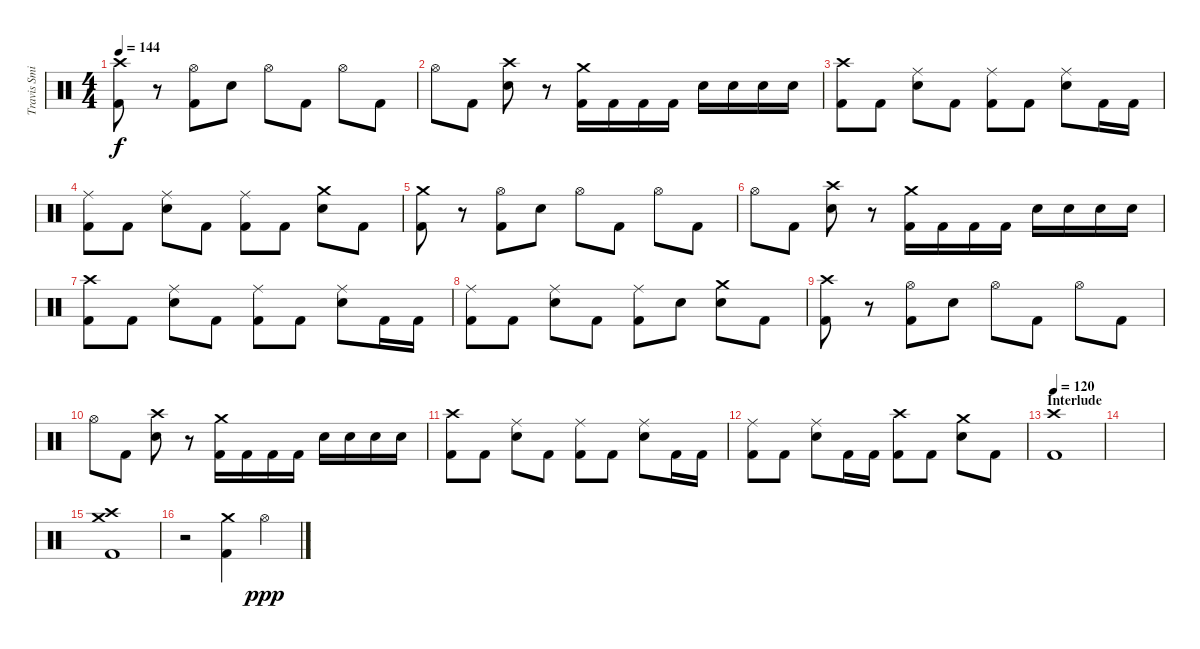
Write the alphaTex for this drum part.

\track ("Travis Smith" "Travis Smi") {instrument percussion}
\staff {score}
\articulation defaults
\ts (4 4)
\tempo 144
\clef neutral
\ks c
("Crash high (hit)" "Kick (hit) 2").8{dy f} r.8 ("Hi-Hat (open)" "Kick (hit) 2").8 "Electric Snare (hit)".8 "Hi-Hat (open)".8 "Kick (hit) 2".8 "Hi-Hat (open)".8 "Kick (hit) 2".8 |
"Hi-Hat (open)".8 "Kick (hit) 2".8 ("Crash high (hit)" "Electric Snare (hit)").8 r.8 ("Crash medium (hit)" "Kick (hit) 2").16 "Kick (hit) 2".16 "Kick (hit) 2".16 "Kick (hit) 2".16 "Electric Snare (hit)".16 "Electric Snare (hit)".16 "Electric Snare (hit)".16 "Electric Snare (hit)".16 |
("Crash high (hit)" "Kick (hit) 2").8 "Kick (hit) 2".8 ("Ride (middle)" "Electric Snare (hit)").8 "Kick (hit) 2".8 ("Ride (middle)" "Kick (hit) 2").8 "Kick (hit) 2".8 ("Ride (middle)" "Electric Snare (hit)").8 "Kick (hit) 2".16 "Kick (hit) 2".16 |
("Ride (middle)" "Kick (hit) 2").8 "Kick (hit) 2".8 ("Ride (middle)" "Electric Snare (hit)").8 "Kick (hit) 2".8 ("Ride (middle)" "Kick (hit) 2").8 "Kick (hit) 2".8 ("Crash medium (hit)" "Electric Snare (hit)").8 "Kick (hit) 2".8 |
("Crash medium (hit)" "Kick (hit) 2").8 r.8 ("Hi-Hat (open)" "Kick (hit) 2").8 "Electric Snare (hit)".8 "Hi-Hat (open)".8 "Kick (hit) 2".8 "Hi-Hat (open)".8 "Kick (hit) 2".8 |
"Hi-Hat (open)".8 "Kick (hit) 2".8 ("Crash high (hit)" "Electric Snare (hit)").8 r.8 ("Crash medium (hit)" "Kick (hit) 2").16 "Kick (hit) 2".16 "Kick (hit) 2".16 "Kick (hit) 2".16 "Electric Snare (hit)".16 "Electric Snare (hit)".16 "Electric Snare (hit)".16 "Electric Snare (hit)".16 |
("Crash high (hit)" "Kick (hit) 2").8 "Kick (hit) 2".8 ("Ride (middle)" "Electric Snare (hit)").8 "Kick (hit) 2".8 ("Ride (middle)" "Kick (hit) 2").8 "Kick (hit) 2".8 ("Ride (middle)" "Electric Snare (hit)").8 "Kick (hit) 2".16 "Kick (hit) 2".16 |
("Ride (middle)" "Kick (hit) 2").8 "Kick (hit) 2".8 ("Ride (middle)" "Electric Snare (hit)").8 "Kick (hit) 2".8 ("Ride (middle)" "Kick (hit) 2").8 "Electric Snare (hit)".8 ("Crash medium (hit)" "Electric Snare (hit)").8 "Kick (hit) 2".8 |
("Crash high (hit)" "Kick (hit) 2").8 r.8 ("Hi-Hat (open)" "Kick (hit) 2").8 "Electric Snare (hit)".8 "Hi-Hat (open)".8 "Kick (hit) 2".8 "Hi-Hat (open)".8 "Kick (hit) 2".8 |
"Hi-Hat (open)".8 "Kick (hit) 2".8 ("Crash high (hit)" "Electric Snare (hit)").8 r.8 ("Crash medium (hit)" "Kick (hit) 2").16 "Kick (hit) 2".16 "Kick (hit) 2".16 "Kick (hit) 2".16 "Electric Snare (hit)".16 "Electric Snare (hit)".16 "Electric Snare (hit)".16 "Electric Snare (hit)".16 |
("Crash high (hit)" "Kick (hit) 2").8 "Kick (hit) 2".8 ("Ride (middle)" "Electric Snare (hit)").8 "Kick (hit) 2".8 ("Ride (middle)" "Kick (hit) 2").8 "Kick (hit) 2".8 ("Ride (middle)" "Electric Snare (hit)").8 "Kick (hit) 2".16 "Kick (hit) 2".16 |
("Ride (middle)" "Kick (hit) 2").8 "Kick (hit) 2".8 ("Ride (middle)" "Electric Snare (hit)").8 "Kick (hit) 2".16 "Kick (hit) 2".16 ("Crash high (hit)" "Kick (hit) 2").8 "Kick (hit) 2".8 ("Crash medium (hit)" "Electric Snare (hit)").8 "Kick (hit) 2".8 |
\section ("" "Interlude")
\tempo 120
("Crash high (hit)" "Kick (hit) 2").1 |
|
("Crash medium (hit)" "Crash high (hit)" "Kick (hit) 2").1 |
r.2 ("Crash medium (hit)" "Kick (hit) 2").4 "Hi-Hat (open)".4{dy ppp}
